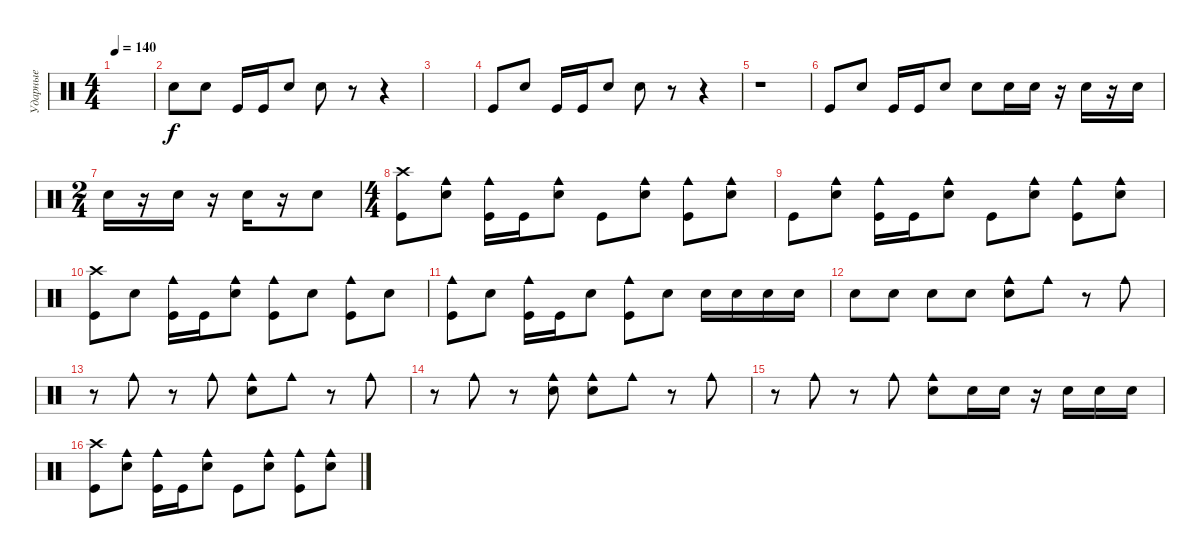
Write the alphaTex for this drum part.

\track ("Ударные" "Ударные") {instrument percussion}
\staff {score}
\articulation defaults
\ts (4 4)
\tempo 140
\clef neutral
\ks c
|
"Electric Snare (hit)".8 "Electric Snare (hit)".8 "Kick (hit)".16 "Kick (hit)".16 "Electric Snare (hit)".8 "Electric Snare (hit)".8 r.8 r.4 |
|
"Kick (hit)".8 "Electric Snare (hit)".8 "Kick (hit)".16 "Kick (hit)".16 "Electric Snare (hit)".8 "Electric Snare (hit)".8 r.8 r.4 |
r.1 |
"Kick (hit)".8 "Electric Snare (hit)".8 "Kick (hit)".16 "Kick (hit)".16 "Electric Snare (hit)".8 "Electric Snare (hit)".8 "Electric Snare (hit)".16 "Electric Snare (hit)".16 r.16 "Electric Snare (hit)".16 r.16 "Electric Snare (hit)".16 |
\ts (2 4)
"Electric Snare (hit)".16 r.16 "Electric Snare (hit)".16 r.16 "Electric Snare (hit)".16 r.16 "Electric Snare (hit)".8 |
\ts (4 4)
("Crash high (hit)" "Kick (hit)").8 ("Cowbell medium (hit)" "Electric Snare (hit)").8 ("Cowbell medium (hit)" "Kick (hit)").16 "Kick (hit)".16 ("Cowbell medium (hit)" "Electric Snare (hit)").8 "Kick (hit)".8 ("Cowbell medium (hit)" "Electric Snare (hit)").8 ("Cowbell medium (hit)" "Kick (hit)").8 ("Cowbell medium (hit)" "Electric Snare (hit)").8 |
"Kick (hit)".8 ("Cowbell medium (hit)" "Electric Snare (hit)").8 ("Cowbell medium (hit)" "Kick (hit)").16 "Kick (hit)".16 ("Cowbell medium (hit)" "Electric Snare (hit)").8 "Kick (hit)".8 ("Cowbell medium (hit)" "Electric Snare (hit)").8 ("Cowbell medium (hit)" "Kick (hit)").8 ("Cowbell medium (hit)" "Electric Snare (hit)").8 |
("Crash high (hit)" "Kick (hit)").8 "Electric Snare (hit)".8 ("Cowbell medium (hit)" "Kick (hit)").16 "Kick (hit)".16 ("Cowbell medium (hit)" "Electric Snare (hit)").8 ("Cowbell medium (hit)" "Kick (hit)").8 "Electric Snare (hit)".8 ("Cowbell medium (hit)" "Kick (hit)").8 "Electric Snare (hit)".8 |
("Cowbell medium (hit)" "Kick (hit)").8 "Electric Snare (hit)".8 ("Cowbell medium (hit)" "Kick (hit)").16 "Kick (hit)".16 "Electric Snare (hit)".8 ("Cowbell medium (hit)" "Kick (hit)").8 "Electric Snare (hit)".8 "Electric Snare (hit)".16 "Electric Snare (hit)".16 "Electric Snare (hit)".16 "Electric Snare (hit)".16 |
"Electric Snare (hit)".8 "Electric Snare (hit)".8 "Electric Snare (hit)".8 "Electric Snare (hit)".8 ("Cowbell medium (hit)" "Electric Snare (hit)").8 "Cowbell medium (hit)".8 r.8 "Cowbell medium (hit)".8 |
r.8 "Cowbell medium (hit)".8 r.8 "Cowbell medium (hit)".8 ("Cowbell medium (hit)" "Electric Snare (hit)").8 "Cowbell medium (hit)".8 r.8 "Cowbell medium (hit)".8 |
r.8 "Cowbell medium (hit)".8 r.8 ("Cowbell medium (hit)" "Electric Snare (hit)").8 ("Cowbell medium (hit)" "Electric Snare (hit)").8 "Cowbell medium (hit)".8 r.8 "Cowbell medium (hit)".8 |
r.8 "Cowbell medium (hit)".8 r.8 "Cowbell medium (hit)".8 ("Cowbell medium (hit)" "Electric Snare (hit)").8 "Electric Snare (hit)".16 "Electric Snare (hit)".16 r.16 "Electric Snare (hit)".16 "Electric Snare (hit)".16 "Electric Snare (hit)".16 |
("Crash high (hit)" "Kick (hit)").8 ("Cowbell medium (hit)" "Electric Snare (hit)").8 ("Cowbell medium (hit)" "Kick (hit)").16 "Kick (hit)".16 ("Cowbell medium (hit)" "Electric Snare (hit)").8 "Kick (hit)".8 ("Cowbell medium (hit)" "Electric Snare (hit)").8 ("Cowbell medium (hit)" "Kick (hit)").8 ("Cowbell medium (hit)" "Electric Snare (hit)").8
